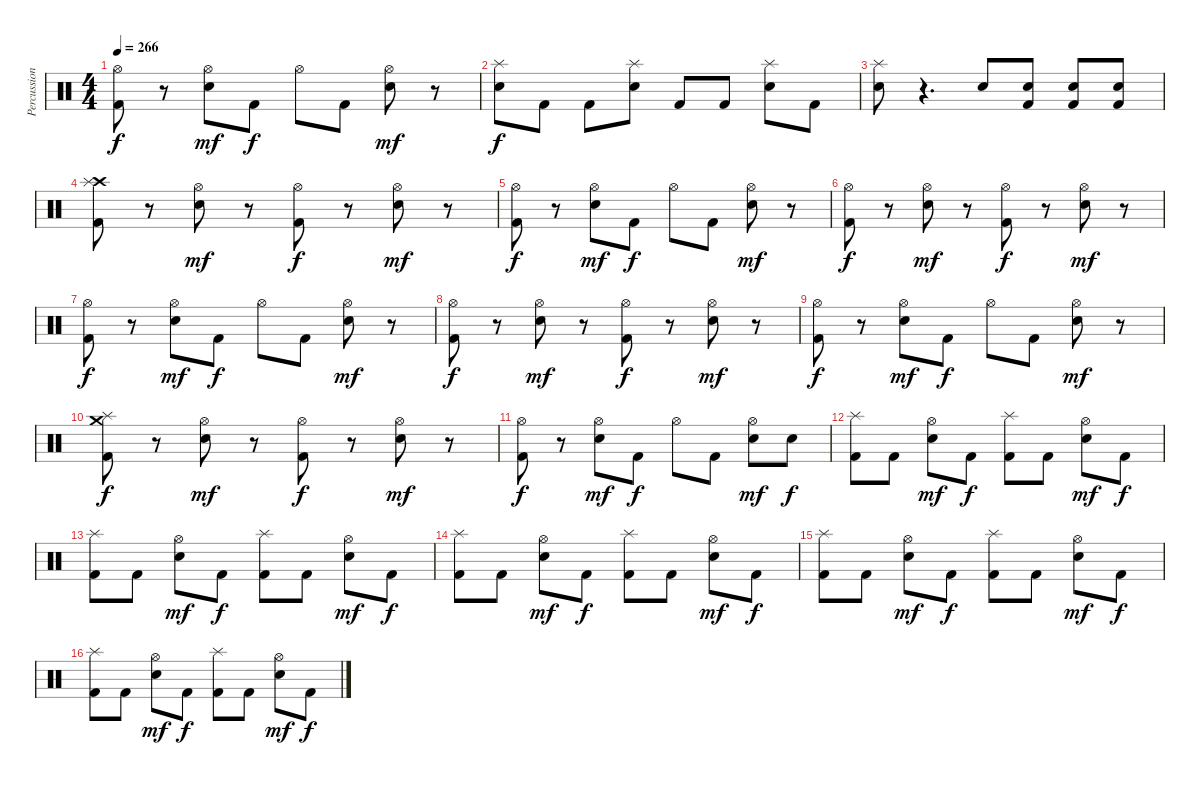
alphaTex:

\track ("Percussion" "Percussion") {instrument percussion}
\staff {score}
\articulation defaults
\ts (4 4)
\tempo 266
\clef neutral
\ks c
("Kick (hit) 2" "Hi-Hat (open)").8{dy f} r.8 ("Snare (hit) 2" "Hi-Hat (open)").8{dy mf} "Kick (hit) 2".8{dy f} "Hi-Hat (open)".8 "Kick (hit) 2".8 ("Snare (hit) 2" "Hi-Hat (open)").8{dy mf} r.8 |
("Snare (hit) 2" "Splash (hit)").8{dy f} "Kick (hit) 2".8 "Kick (hit) 2".8 ("Splash (hit)" "Snare (hit) 2").8 "Kick (hit) 2".8 "Kick (hit) 2".8 ("Splash (hit)" "Snare (hit) 2").8 "Kick (hit) 2".8 |
("Splash (hit)" "Snare (hit) 2").8 r.4{d} "Snare (hit) 2".8 ("Snare (hit) 2" "Kick (hit) 2").8 ("Snare (hit) 2" "Kick (hit) 2").8 ("Snare (hit) 2" "Kick (hit) 2").8 |
("Crash high (hit)" "Splash (hit)" "Kick (hit) 2").8 r.8 ("Snare (hit) 2" "Hi-Hat (open)").8{dy mf} r.8 ("Kick (hit) 2" "Hi-Hat (open)").8{dy f} r.8 ("Snare (hit) 2" "Hi-Hat (open)").8{dy mf} r.8 |
("Kick (hit) 2" "Hi-Hat (open)").8{dy f} r.8 ("Snare (hit) 2" "Hi-Hat (open)").8{dy mf} "Kick (hit) 2".8{dy f} "Hi-Hat (open)".8 "Kick (hit) 2".8 ("Snare (hit) 2" "Hi-Hat (open)").8{dy mf} r.8 |
("Hi-Hat (open)" "Kick (hit) 2").8{dy f} r.8 ("Snare (hit) 2" "Hi-Hat (open)").8{dy mf} r.8 ("Kick (hit) 2" "Hi-Hat (open)").8{dy f} r.8 ("Snare (hit) 2" "Hi-Hat (open)").8{dy mf} r.8 |
("Kick (hit) 2" "Hi-Hat (open)").8{dy f} r.8 ("Snare (hit) 2" "Hi-Hat (open)").8{dy mf} "Kick (hit) 2".8{dy f} "Hi-Hat (open)".8 "Kick (hit) 2".8 ("Snare (hit) 2" "Hi-Hat (open)").8{dy mf} r.8 |
("Hi-Hat (open)" "Kick (hit) 2").8{dy f} r.8 ("Snare (hit) 2" "Hi-Hat (open)").8{dy mf} r.8 ("Kick (hit) 2" "Hi-Hat (open)").8{dy f} r.8 ("Snare (hit) 2" "Hi-Hat (open)").8{dy mf} r.8 |
("Kick (hit) 2" "Hi-Hat (open)").8{dy f} r.8 ("Snare (hit) 2" "Hi-Hat (open)").8{dy mf} "Kick (hit) 2".8{dy f} "Hi-Hat (open)".8 "Kick (hit) 2".8 ("Snare (hit) 2" "Hi-Hat (open)").8{dy mf} r.8 |
("Splash (hit)" "Crash medium (hit)" "Kick (hit) 2").8{dy f} r.8 ("Snare (hit) 2" "Hi-Hat (open)").8{dy mf} r.8 ("Kick (hit) 2" "Hi-Hat (open)").8{dy f} r.8 ("Snare (hit) 2" "Hi-Hat (open)").8{dy mf} r.8 |
("Kick (hit) 2" "Hi-Hat (open)").8{dy f} r.8 ("Snare (hit) 2" "Hi-Hat (open)").8{dy mf} "Kick (hit) 2".8{dy f} "Hi-Hat (open)".8 "Kick (hit) 2".8 ("Snare (hit) 2" "Hi-Hat (open)").8{dy mf} "Snare (hit) 2".8{dy f} |
("Splash (hit)" "Kick (hit) 2").8 "Kick (hit) 2".8 ("Hi-Hat (open)" "Snare (hit) 2").8{dy mf} "Kick (hit) 2".8{dy f} ("Kick (hit) 2" "Splash (hit)").8 "Kick (hit) 2".8 ("Hi-Hat (open)" "Snare (hit) 2").8{dy mf} "Kick (hit) 2".8{dy f} |
("Splash (hit)" "Kick (hit) 2").8 "Kick (hit) 2".8 ("Hi-Hat (open)" "Snare (hit) 2").8{dy mf} "Kick (hit) 2".8{dy f} ("Kick (hit) 2" "Splash (hit)").8 "Kick (hit) 2".8 ("Hi-Hat (open)" "Snare (hit) 2").8{dy mf} "Kick (hit) 2".8{dy f} |
("Splash (hit)" "Kick (hit) 2").8 "Kick (hit) 2".8 ("Hi-Hat (open)" "Snare (hit) 2").8{dy mf} "Kick (hit) 2".8{dy f} ("Kick (hit) 2" "Splash (hit)").8 "Kick (hit) 2".8 ("Hi-Hat (open)" "Snare (hit) 2").8{dy mf} "Kick (hit) 2".8{dy f} |
("Splash (hit)" "Kick (hit) 2").8 "Kick (hit) 2".8 ("Hi-Hat (open)" "Snare (hit) 2").8{dy mf} "Kick (hit) 2".8{dy f} ("Kick (hit) 2" "Splash (hit)").8 "Kick (hit) 2".8 ("Hi-Hat (open)" "Snare (hit) 2").8{dy mf} "Kick (hit) 2".8{dy f} |
("Splash (hit)" "Kick (hit) 2").8 "Kick (hit) 2".8 ("Hi-Hat (open)" "Snare (hit) 2").8{dy mf} "Kick (hit) 2".8{dy f} ("Kick (hit) 2" "Splash (hit)").8 "Kick (hit) 2".8 ("Hi-Hat (open)" "Snare (hit) 2").8{dy mf} "Kick (hit) 2".8{dy f}
